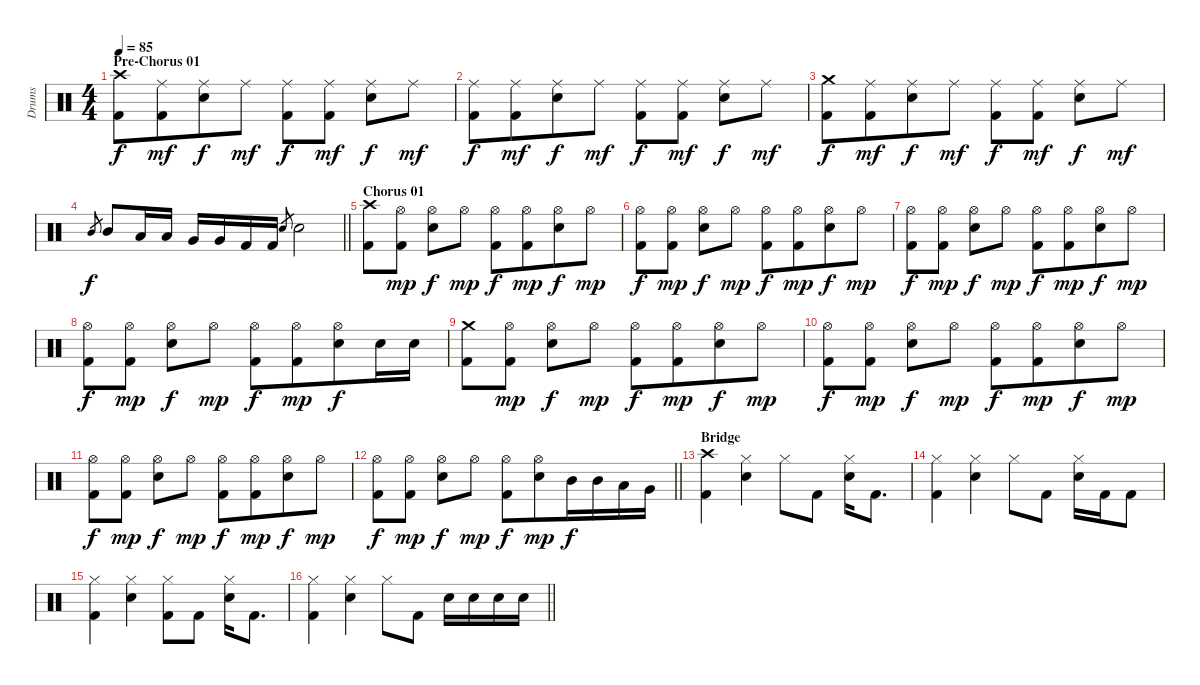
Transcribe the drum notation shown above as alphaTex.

\track ("Drums" "Drums") {instrument percussion}
\staff {score}
\articulation defaults
\ts (4 4)
\section ("" "Pre-Chorus 01")
\tempo 85
\clef neutral
\ks c
("Crash high (hit)" "Kick (hit) 2").8{dy f beam merge} ("Ride (middle)" "Kick (hit) 2").8{dy mf beam merge} ("Ride (middle)" "Snare (hit) 2").8{dy f beam merge} "Ride (middle)".8{dy mf} ("Ride (middle)" "Kick (hit) 2").8{dy f} ("Ride (middle)" "Kick (hit) 2").8{dy mf} ("Ride (middle)" "Snare (hit) 2").8{dy f} "Ride (middle)".8{dy mf} |
("Ride (middle)" "Kick (hit) 2").8{dy f beam merge} ("Ride (middle)" "Kick (hit) 2").8{dy mf beam merge} ("Ride (middle)" "Snare (hit) 2").8{dy f beam merge} "Ride (middle)".8{dy mf} ("Ride (middle)" "Kick (hit) 2").8{dy f} ("Ride (middle)" "Kick (hit) 2").8{dy mf} ("Ride (middle)" "Snare (hit) 2").8{dy f} "Ride (middle)".8{dy mf} |
("Crash medium (hit)" "Kick (hit) 2").8{dy f beam merge} ("Ride (middle)" "Kick (hit) 2").8{dy mf beam merge} ("Ride (middle)" "Snare (hit) 2").8{dy f beam merge} "Ride (middle)".8{dy mf} ("Ride (middle)" "Kick (hit) 2").8{dy f} ("Ride (middle)" "Kick (hit) 2").8{dy mf} ("Ride (middle)" "Snare (hit) 2").8{dy f} "Ride (middle)".8{dy mf} |
\barLineRight lightlight "Mid Tom (hit)".8{gr dy f} "Mid Tom (hit)".8 "Low Tom (hit)".16 "Low Tom (hit)".16 "Very Low Tom (hit)".16{beam merge} "Very Low Tom (hit)".16 "Kick (hit) 2".16{beam merge} "Kick (hit) 2".16 "Snare (hit) 2".8{gr beam merge} "Snare (hit) 2".2
|
\section ("" "Chorus 01")
("Crash high (hit)" "Kick (hit) 2").8{beam merge} ("Hi-Hat (open)" "Kick (hit) 2").8{dy mp} ("Hi-Hat (open)" "Snare (hit) 2").8{dy f beam merge} "Hi-Hat (open)".8{dy mp} ("Hi-Hat (open)" "Kick (hit) 2").8{dy f beam merge} ("Hi-Hat (open)" "Kick (hit) 2").8{dy mp beam merge} ("Hi-Hat (open)" "Snare (hit) 2").8{dy f} "Hi-Hat (open)".8{dy mp} |
("Hi-Hat (open)" "Kick (hit) 2").8{dy f beam merge} ("Hi-Hat (open)" "Kick (hit) 2").8{dy mp} ("Hi-Hat (open)" "Snare (hit) 2").8{dy f beam merge} "Hi-Hat (open)".8{dy mp} ("Hi-Hat (open)" "Kick (hit) 2").8{dy f beam merge} ("Hi-Hat (open)" "Kick (hit) 2").8{dy mp beam merge} ("Hi-Hat (open)" "Snare (hit) 2").8{dy f} "Hi-Hat (open)".8{dy mp} |
("Hi-Hat (open)" "Kick (hit) 2").8{dy f beam merge} ("Hi-Hat (open)" "Kick (hit) 2").8{dy mp} ("Hi-Hat (open)" "Snare (hit) 2").8{dy f beam merge} "Hi-Hat (open)".8{dy mp} ("Hi-Hat (open)" "Kick (hit) 2").8{dy f beam merge} ("Hi-Hat (open)" "Kick (hit) 2").8{dy mp beam merge} ("Hi-Hat (open)" "Snare (hit) 2").8{dy f} "Hi-Hat (open)".8{dy mp} |
("Hi-Hat (open)" "Kick (hit) 2").8{dy f beam merge} ("Hi-Hat (open)" "Kick (hit) 2").8{dy mp} ("Hi-Hat (open)" "Snare (hit) 2").8{dy f beam merge} "Hi-Hat (open)".8{dy mp} ("Hi-Hat (open)" "Kick (hit) 2").8{dy f beam merge} ("Hi-Hat (open)" "Kick (hit) 2").8{dy mp beam merge} ("Hi-Hat (open)" "Snare (hit) 2").8{dy f} "Snare (hit) 2".16{beam merge} "Snare (hit) 2".16 |
("Crash medium (hit)" "Kick (hit) 2").8{beam merge} ("Hi-Hat (open)" "Kick (hit) 2").8{dy mp} ("Hi-Hat (open)" "Snare (hit) 2").8{dy f beam merge} "Hi-Hat (open)".8{dy mp} ("Hi-Hat (open)" "Kick (hit) 2").8{dy f beam merge} ("Hi-Hat (open)" "Kick (hit) 2").8{dy mp beam merge} ("Hi-Hat (open)" "Snare (hit) 2").8{dy f} "Hi-Hat (open)".8{dy mp} |
("Hi-Hat (open)" "Kick (hit) 2").8{dy f beam merge} ("Hi-Hat (open)" "Kick (hit) 2").8{dy mp} ("Hi-Hat (open)" "Snare (hit) 2").8{dy f beam merge} "Hi-Hat (open)".8{dy mp} ("Hi-Hat (open)" "Kick (hit) 2").8{dy f beam merge} ("Hi-Hat (open)" "Kick (hit) 2").8{dy mp beam merge} ("Hi-Hat (open)" "Snare (hit) 2").8{dy f} "Hi-Hat (open)".8{dy mp} |
("Hi-Hat (open)" "Kick (hit) 2").8{dy f beam merge} ("Hi-Hat (open)" "Kick (hit) 2").8{dy mp} ("Hi-Hat (open)" "Snare (hit) 2").8{dy f beam merge} "Hi-Hat (open)".8{dy mp} ("Hi-Hat (open)" "Kick (hit) 2").8{dy f beam merge} ("Hi-Hat (open)" "Kick (hit) 2").8{dy mp beam merge} ("Hi-Hat (open)" "Snare (hit) 2").8{dy f} "Hi-Hat (open)".8{dy mp} |
\barLineRight lightlight
("Hi-Hat (open)" "Kick (hit) 2").8{dy f beam merge} ("Hi-Hat (open)" "Kick (hit) 2").8{dy mp} ("Hi-Hat (open)" "Snare (hit) 2").8{dy f beam merge} "Hi-Hat (open)".8{dy mp} ("Hi-Hat (open)" "Kick (hit) 2").8{dy f beam merge} ("Hi-Hat (open)" "Snare (hit) 2").8{dy mp beam merge} "Mid Tom (hit)".16{dy f} "Mid Tom (hit)".16 "Low Tom (hit)".16 "Very Low Tom (hit)".16 |
\section ("" "Bridge")
("Crash high (hit)" "Kick (hit) 2").4 ("Hi-Hat (closed)" "Snare (hit) 2").4 "Hi-Hat (closed)".8 "Kick (hit) 2".8 ("Hi-Hat (closed)" "Snare (hit) 2").16 "Kick (hit) 2".8{d} |
("Hi-Hat (closed)" "Kick (hit) 2").4{beam merge} ("Hi-Hat (closed)" "Snare (hit) 2").4 "Hi-Hat (closed)".8 "Kick (hit) 2".8 ("Hi-Hat (closed)" "Snare (hit) 2").16{beam merge} "Kick (hit) 2".16{beam merge} "Kick (hit) 2".8 |
("Hi-Hat (closed)" "Kick (hit) 2").4 ("Hi-Hat (closed)" "Snare (hit) 2").4 ("Hi-Hat (closed)" "Kick (hit) 2").8{beam merge} "Kick (hit) 2".8 ("Hi-Hat (closed)" "Snare (hit) 2").16 "Kick (hit) 2".8{d} |
\barLineRight lightlight
("Hi-Hat (closed)" "Kick (hit) 2").4{beam merge} ("Hi-Hat (closed)" "Snare (hit) 2").4 "Hi-Hat (closed)".8 "Kick (hit) 2".8 "Snare (hit) 2".16 "Snare (hit) 2".16 "Snare (hit) 2".16 "Snare (hit) 2".16
